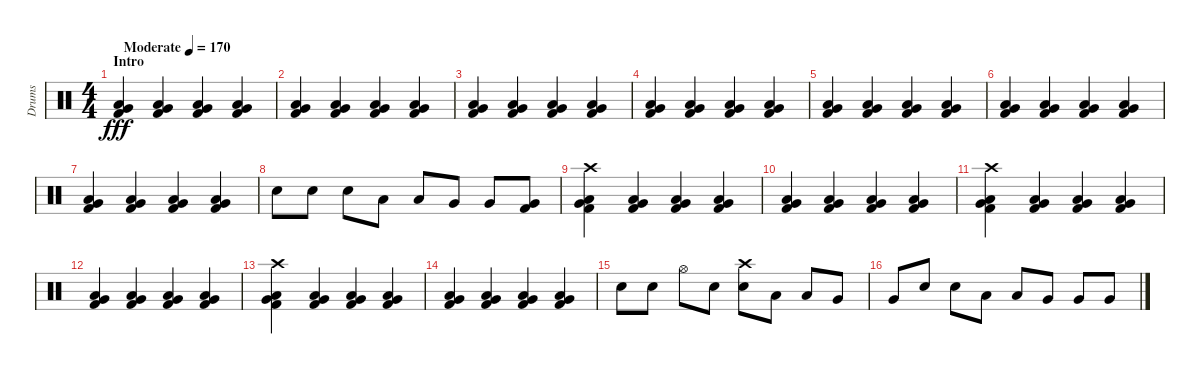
\track ("Drums" "Drums") {instrument percussion}
\staff {score}
\articulation defaults
\ts (4 4)
\section ("" "Intro")
\tempo (170 "Moderate")
\clef neutral
\ks c
("Low Tom (hit)" "Very Low Tom (hit)" "Kick (hit) 2").4{dy fff} ("Low Tom (hit)" "Very Low Tom (hit)" "Kick (hit) 2").4 ("Low Tom (hit)" "Very Low Tom (hit)" "Kick (hit) 2").4 ("Low Tom (hit)" "Very Low Tom (hit)" "Kick (hit) 2").4 |
("Low Tom (hit)" "Very Low Tom (hit)" "Kick (hit) 2").4 ("Low Tom (hit)" "Very Low Tom (hit)" "Kick (hit) 2").4 ("Low Tom (hit)" "Very Low Tom (hit)" "Kick (hit) 2").4 ("Low Tom (hit)" "Very Low Tom (hit)" "Kick (hit) 2").4 |
("Low Tom (hit)" "Very Low Tom (hit)" "Kick (hit) 2").4 ("Low Tom (hit)" "Very Low Tom (hit)" "Kick (hit) 2").4 ("Low Tom (hit)" "Very Low Tom (hit)" "Kick (hit) 2").4 ("Low Tom (hit)" "Very Low Tom (hit)" "Kick (hit) 2").4 |
("Low Tom (hit)" "Very Low Tom (hit)" "Kick (hit) 2").4 ("Low Tom (hit)" "Very Low Tom (hit)" "Kick (hit) 2").4 ("Low Tom (hit)" "Very Low Tom (hit)" "Kick (hit) 2").4 ("Low Tom (hit)" "Very Low Tom (hit)" "Kick (hit) 2").4 |
("Low Tom (hit)" "Very Low Tom (hit)" "Kick (hit) 2").4 ("Low Tom (hit)" "Very Low Tom (hit)" "Kick (hit) 2").4 ("Low Tom (hit)" "Very Low Tom (hit)" "Kick (hit) 2").4 ("Low Tom (hit)" "Very Low Tom (hit)" "Kick (hit) 2").4 |
("Low Tom (hit)" "Very Low Tom (hit)" "Kick (hit) 2").4 ("Low Tom (hit)" "Very Low Tom (hit)" "Kick (hit) 2").4 ("Low Tom (hit)" "Very Low Tom (hit)" "Kick (hit) 2").4 ("Low Tom (hit)" "Very Low Tom (hit)" "Kick (hit) 2").4 |
("Low Tom (hit)" "Very Low Tom (hit)" "Kick (hit) 2").4 ("Low Tom (hit)" "Very Low Tom (hit)" "Kick (hit) 2").4 ("Low Tom (hit)" "Very Low Tom (hit)" "Kick (hit) 2").4 ("Low Tom (hit)" "Very Low Tom (hit)" "Kick (hit) 2").4 |
"Electric Snare (hit)".8 "Electric Snare (hit)".8 "Electric Snare (hit)".8 "Low Tom (hit)".8 "Low Tom (hit)".8 "Very Low Tom (hit)".8 "Very Low Tom (hit)".8 ("Very Low Tom (hit)" "Kick (hit) 2").8 |
("Crash high (hit)" "Low Tom (hit)" "Very Low Tom (hit)" "Kick (hit) 2").4 ("Low Tom (hit)" "Very Low Tom (hit)" "Kick (hit) 2").4 ("Low Tom (hit)" "Very Low Tom (hit)" "Kick (hit) 2").4 ("Low Tom (hit)" "Very Low Tom (hit)" "Kick (hit) 2").4 |
("Low Tom (hit)" "Very Low Tom (hit)" "Kick (hit) 2").4 ("Low Tom (hit)" "Very Low Tom (hit)" "Kick (hit) 2").4 ("Low Tom (hit)" "Very Low Tom (hit)" "Kick (hit) 2").4 ("Low Tom (hit)" "Very Low Tom (hit)" "Kick (hit) 2").4 |
("Crash high (hit)" "Low Tom (hit)" "Very Low Tom (hit)" "Kick (hit) 2").4 ("Low Tom (hit)" "Very Low Tom (hit)" "Kick (hit) 2").4 ("Low Tom (hit)" "Very Low Tom (hit)" "Kick (hit) 2").4 ("Low Tom (hit)" "Very Low Tom (hit)" "Kick (hit) 2").4 |
("Low Tom (hit)" "Very Low Tom (hit)" "Kick (hit) 2").4 ("Low Tom (hit)" "Very Low Tom (hit)" "Kick (hit) 2").4 ("Low Tom (hit)" "Very Low Tom (hit)" "Kick (hit) 2").4 ("Low Tom (hit)" "Very Low Tom (hit)" "Kick (hit) 2").4 |
("Crash high (hit)" "Low Tom (hit)" "Very Low Tom (hit)" "Kick (hit) 2").4 ("Low Tom (hit)" "Very Low Tom (hit)" "Kick (hit) 2").4 ("Low Tom (hit)" "Very Low Tom (hit)" "Kick (hit) 2").4 ("Low Tom (hit)" "Very Low Tom (hit)" "Kick (hit) 2").4 |
("Low Tom (hit)" "Very Low Tom (hit)" "Kick (hit) 2").4 ("Low Tom (hit)" "Very Low Tom (hit)" "Kick (hit) 2").4 ("Low Tom (hit)" "Very Low Tom (hit)" "Kick (hit) 2").4 ("Low Tom (hit)" "Very Low Tom (hit)" "Kick (hit) 2").4 |
"Electric Snare (hit)".8 "Electric Snare (hit)".8 "Hi-Hat (open)".8 "Electric Snare (hit)".8 ("Crash high (hit)" "Electric Snare (hit)").8 "Low Tom (hit)".8 "Low Tom (hit)".8 "Very Low Tom (hit)".8 |
"Very Low Tom (hit)".8 "Electric Snare (hit)".8 "Electric Snare (hit)".8 "Low Tom (hit)".8 "Low Tom (hit)".8 "Very Low Tom (hit)".8 "Very Low Tom (hit)".8 "Very Low Tom (hit)".8
